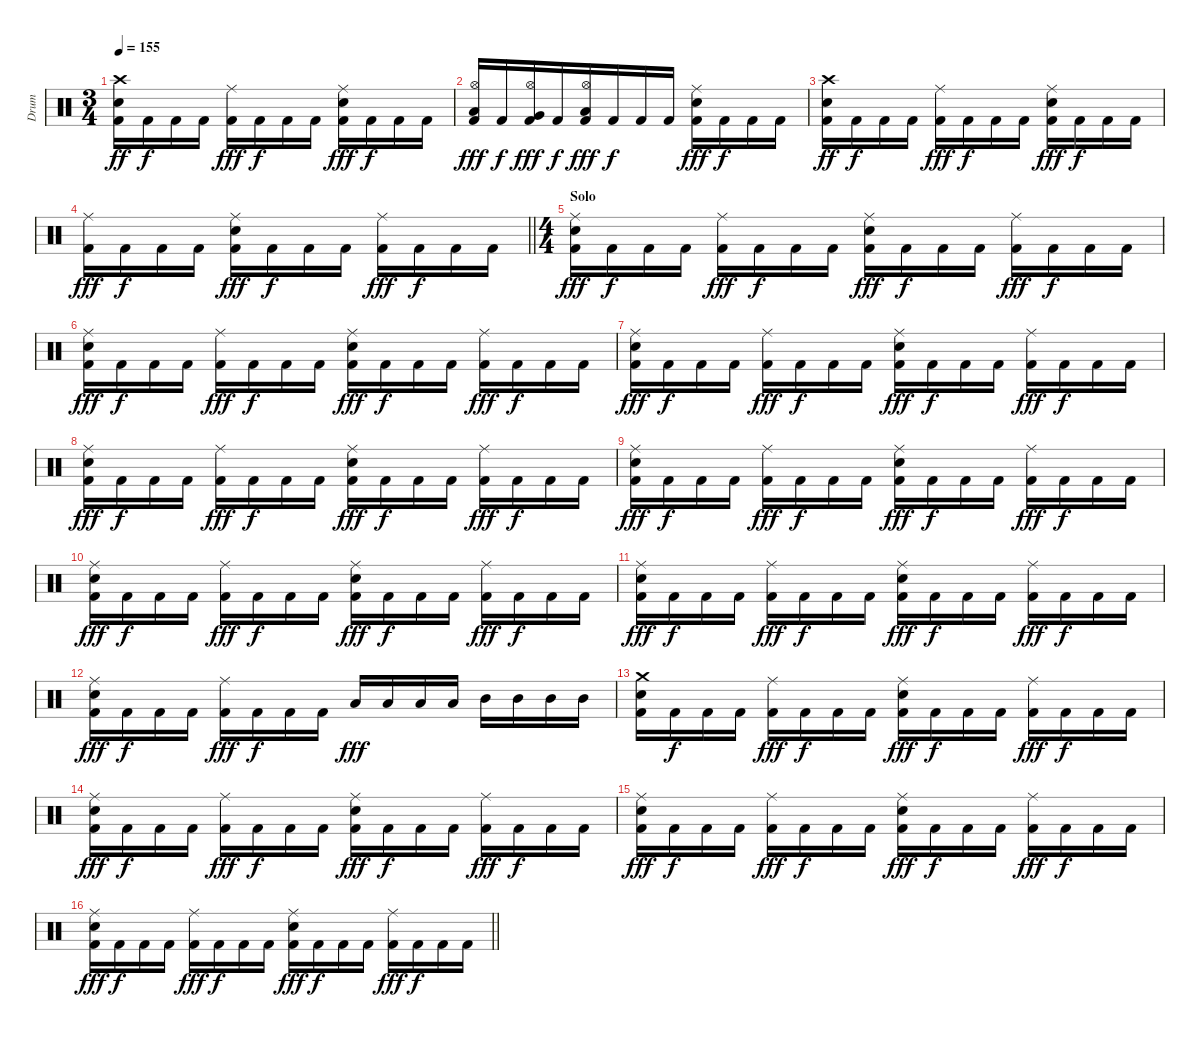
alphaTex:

\track ("Drum" "Drum") {instrument percussion}
\staff {score}
\articulation defaults
\ts (3 4)
\tempo 155
\clef neutral
\ks c
("Crash high (hit)" "Snare (hit) 2" "Kick (hit) 2").16{dy ff} "Kick (hit) 2".16{dy f} "Kick (hit) 2".16 "Kick (hit) 2".16 ("Ride (middle)" "Kick (hit) 2").16{dy fff} "Kick (hit) 2".16{dy f} "Kick (hit) 2".16 "Kick (hit) 2".16 ("Ride (middle)" "Snare (hit) 2" "Kick (hit) 2").16{dy fff} "Kick (hit) 2".16{dy f} "Kick (hit) 2".16 "Kick (hit) 2".16 |
("Hi-Hat (open)" "Low Tom (hit)" "Kick (hit) 2").16{dy fff beam merge} "Kick (hit) 2".16{dy f beam merge} ("Hi-Hat (open)" "Very Low Tom (hit)" "Kick (hit) 2").16{dy fff} "Kick (hit) 2".16{dy f beam merge} ("Hi-Hat (open)" "Low Floor Tom (hit)" "Kick (hit) 2").16{dy fff} "Kick (hit) 2".16{dy f} "Kick (hit) 2".16{beam merge} "Kick (hit) 2".16 ("Ride (middle)" "Snare (hit) 2" "Kick (hit) 2").16{dy fff} "Kick (hit) 2".16{dy f} "Kick (hit) 2".16 "Kick (hit) 2".16 |
("Crash high (hit)" "Snare (hit) 2" "Kick (hit) 2").16{dy ff} "Kick (hit) 2".16{dy f} "Kick (hit) 2".16 "Kick (hit) 2".16 ("Ride (middle)" "Kick (hit) 2").16{dy fff} "Kick (hit) 2".16{dy f} "Kick (hit) 2".16 "Kick (hit) 2".16 ("Ride (middle)" "Snare (hit) 2" "Kick (hit) 2").16{dy fff} "Kick (hit) 2".16{dy f} "Kick (hit) 2".16 "Kick (hit) 2".16 |
\barLineRight lightlight
("Ride (middle)" "Kick (hit) 2").16{dy fff} "Kick (hit) 2".16{dy f} "Kick (hit) 2".16 "Kick (hit) 2".16 ("Ride (middle)" "Snare (hit) 2" "Kick (hit) 2").16{dy fff} "Kick (hit) 2".16{dy f} "Kick (hit) 2".16 "Kick (hit) 2".16 ("Ride (middle)" "Kick (hit) 2").16{dy fff} "Kick (hit) 2".16{dy f} "Kick (hit) 2".16 "Kick (hit) 2".16 |
\ts (4 4)
\section ("" "Solo ")
("Ride (middle)" "Snare (hit) 2" "Kick (hit) 2").16{dy fff} "Kick (hit) 2".16{dy f} "Kick (hit) 2".16 "Kick (hit) 2".16 ("Ride (middle)" "Kick (hit) 2").16{dy fff} "Kick (hit) 2".16{dy f} "Kick (hit) 2".16 "Kick (hit) 2".16 ("Ride (middle)" "Snare (hit) 2" "Kick (hit) 2").16{dy fff} "Kick (hit) 2".16{dy f} "Kick (hit) 2".16 "Kick (hit) 2".16 ("Ride (middle)" "Kick (hit) 2").16{dy fff} "Kick (hit) 2".16{dy f} "Kick (hit) 2".16 "Kick (hit) 2".16 |
("Ride (middle)" "Snare (hit) 2" "Kick (hit) 2").16{dy fff} "Kick (hit) 2".16{dy f} "Kick (hit) 2".16 "Kick (hit) 2".16 ("Ride (middle)" "Kick (hit) 2").16{dy fff} "Kick (hit) 2".16{dy f} "Kick (hit) 2".16 "Kick (hit) 2".16 ("Ride (middle)" "Snare (hit) 2" "Kick (hit) 2").16{dy fff} "Kick (hit) 2".16{dy f} "Kick (hit) 2".16 "Kick (hit) 2".16 ("Ride (middle)" "Kick (hit) 2").16{dy fff} "Kick (hit) 2".16{dy f} "Kick (hit) 2".16 "Kick (hit) 2".16 |
("Ride (middle)" "Snare (hit) 2" "Kick (hit) 2").16{dy fff} "Kick (hit) 2".16{dy f} "Kick (hit) 2".16 "Kick (hit) 2".16 ("Ride (middle)" "Kick (hit) 2").16{dy fff} "Kick (hit) 2".16{dy f} "Kick (hit) 2".16 "Kick (hit) 2".16 ("Ride (middle)" "Snare (hit) 2" "Kick (hit) 2").16{dy fff} "Kick (hit) 2".16{dy f} "Kick (hit) 2".16 "Kick (hit) 2".16 ("Ride (middle)" "Kick (hit) 2").16{dy fff} "Kick (hit) 2".16{dy f} "Kick (hit) 2".16 "Kick (hit) 2".16 |
("Ride (middle)" "Snare (hit) 2" "Kick (hit) 2").16{dy fff} "Kick (hit) 2".16{dy f} "Kick (hit) 2".16 "Kick (hit) 2".16 ("Ride (middle)" "Kick (hit) 2").16{dy fff} "Kick (hit) 2".16{dy f} "Kick (hit) 2".16 "Kick (hit) 2".16 ("Ride (middle)" "Snare (hit) 2" "Kick (hit) 2").16{dy fff} "Kick (hit) 2".16{dy f} "Kick (hit) 2".16 "Kick (hit) 2".16 ("Ride (middle)" "Kick (hit) 2").16{dy fff} "Kick (hit) 2".16{dy f} "Kick (hit) 2".16 "Kick (hit) 2".16 |
("Ride (middle)" "Snare (hit) 2" "Kick (hit) 2").16{dy fff} "Kick (hit) 2".16{dy f} "Kick (hit) 2".16 "Kick (hit) 2".16 ("Ride (middle)" "Kick (hit) 2").16{dy fff} "Kick (hit) 2".16{dy f} "Kick (hit) 2".16 "Kick (hit) 2".16 ("Ride (middle)" "Snare (hit) 2" "Kick (hit) 2").16{dy fff} "Kick (hit) 2".16{dy f} "Kick (hit) 2".16 "Kick (hit) 2".16 ("Ride (middle)" "Kick (hit) 2").16{dy fff} "Kick (hit) 2".16{dy f} "Kick (hit) 2".16 "Kick (hit) 2".16 |
("Ride (middle)" "Snare (hit) 2" "Kick (hit) 2").16{dy fff} "Kick (hit) 2".16{dy f} "Kick (hit) 2".16 "Kick (hit) 2".16 ("Ride (middle)" "Kick (hit) 2").16{dy fff} "Kick (hit) 2".16{dy f} "Kick (hit) 2".16 "Kick (hit) 2".16 ("Ride (middle)" "Snare (hit) 2" "Kick (hit) 2").16{dy fff} "Kick (hit) 2".16{dy f} "Kick (hit) 2".16 "Kick (hit) 2".16 ("Ride (middle)" "Kick (hit) 2").16{dy fff} "Kick (hit) 2".16{dy f} "Kick (hit) 2".16 "Kick (hit) 2".16 |
("Ride (middle)" "Snare (hit) 2" "Kick (hit) 2").16{dy fff} "Kick (hit) 2".16{dy f} "Kick (hit) 2".16 "Kick (hit) 2".16 ("Ride (middle)" "Kick (hit) 2").16{dy fff} "Kick (hit) 2".16{dy f} "Kick (hit) 2".16 "Kick (hit) 2".16 ("Ride (middle)" "Snare (hit) 2" "Kick (hit) 2").16{dy fff} "Kick (hit) 2".16{dy f} "Kick (hit) 2".16 "Kick (hit) 2".16 ("Ride (middle)" "Kick (hit) 2").16{dy fff} "Kick (hit) 2".16{dy f} "Kick (hit) 2".16 "Kick (hit) 2".16 |
("Ride (middle)" "Snare (hit) 2" "Kick (hit) 2").16{dy fff} "Kick (hit) 2".16{dy f} "Kick (hit) 2".16 "Kick (hit) 2".16 ("Ride (middle)" "Kick (hit) 2").16{dy fff} "Kick (hit) 2".16{dy f} "Kick (hit) 2".16 "Kick (hit) 2".16 "Low Tom (hit)".16{dy fff} "Low Tom (hit)".16 "Low Tom (hit)".16 "Low Tom (hit)".16 "Mid Tom (hit)".16 "Mid Tom (hit)".16 "Mid Tom (hit)".16 "Mid Tom (hit)".16 |
("Crash medium (hit)" "Snare (hit) 2" "Kick (hit) 2").16 "Kick (hit) 2".16{dy f} "Kick (hit) 2".16 "Kick (hit) 2".16 ("Ride (middle)" "Kick (hit) 2").16{dy fff} "Kick (hit) 2".16{dy f} "Kick (hit) 2".16 "Kick (hit) 2".16 ("Ride (middle)" "Snare (hit) 2" "Kick (hit) 2").16{dy fff} "Kick (hit) 2".16{dy f} "Kick (hit) 2".16 "Kick (hit) 2".16 ("Ride (middle)" "Kick (hit) 2").16{dy fff} "Kick (hit) 2".16{dy f} "Kick (hit) 2".16 "Kick (hit) 2".16 |
("Ride (middle)" "Snare (hit) 2" "Kick (hit) 2").16{dy fff} "Kick (hit) 2".16{dy f} "Kick (hit) 2".16 "Kick (hit) 2".16 ("Ride (middle)" "Kick (hit) 2").16{dy fff} "Kick (hit) 2".16{dy f} "Kick (hit) 2".16 "Kick (hit) 2".16 ("Ride (middle)" "Snare (hit) 2" "Kick (hit) 2").16{dy fff} "Kick (hit) 2".16{dy f} "Kick (hit) 2".16 "Kick (hit) 2".16 ("Ride (middle)" "Kick (hit) 2").16{dy fff} "Kick (hit) 2".16{dy f} "Kick (hit) 2".16 "Kick (hit) 2".16 |
("Ride (middle)" "Snare (hit) 2" "Kick (hit) 2").16{dy fff} "Kick (hit) 2".16{dy f} "Kick (hit) 2".16 "Kick (hit) 2".16 ("Ride (middle)" "Kick (hit) 2").16{dy fff} "Kick (hit) 2".16{dy f} "Kick (hit) 2".16 "Kick (hit) 2".16 ("Ride (middle)" "Snare (hit) 2" "Kick (hit) 2").16{dy fff} "Kick (hit) 2".16{dy f} "Kick (hit) 2".16 "Kick (hit) 2".16 ("Ride (middle)" "Kick (hit) 2").16{dy fff} "Kick (hit) 2".16{dy f} "Kick (hit) 2".16 "Kick (hit) 2".16 |
\barLineRight lightlight
("Ride (middle)" "Snare (hit) 2" "Kick (hit) 2").16{dy fff} "Kick (hit) 2".16{dy f} "Kick (hit) 2".16 "Kick (hit) 2".16 ("Ride (middle)" "Kick (hit) 2").16{dy fff} "Kick (hit) 2".16{dy f} "Kick (hit) 2".16 "Kick (hit) 2".16 ("Ride (middle)" "Snare (hit) 2" "Kick (hit) 2").16{dy fff} "Kick (hit) 2".16{dy f} "Kick (hit) 2".16 "Kick (hit) 2".16 ("Ride (middle)" "Kick (hit) 2").16{dy fff} "Kick (hit) 2".16{dy f} "Kick (hit) 2".16 "Kick (hit) 2".16
